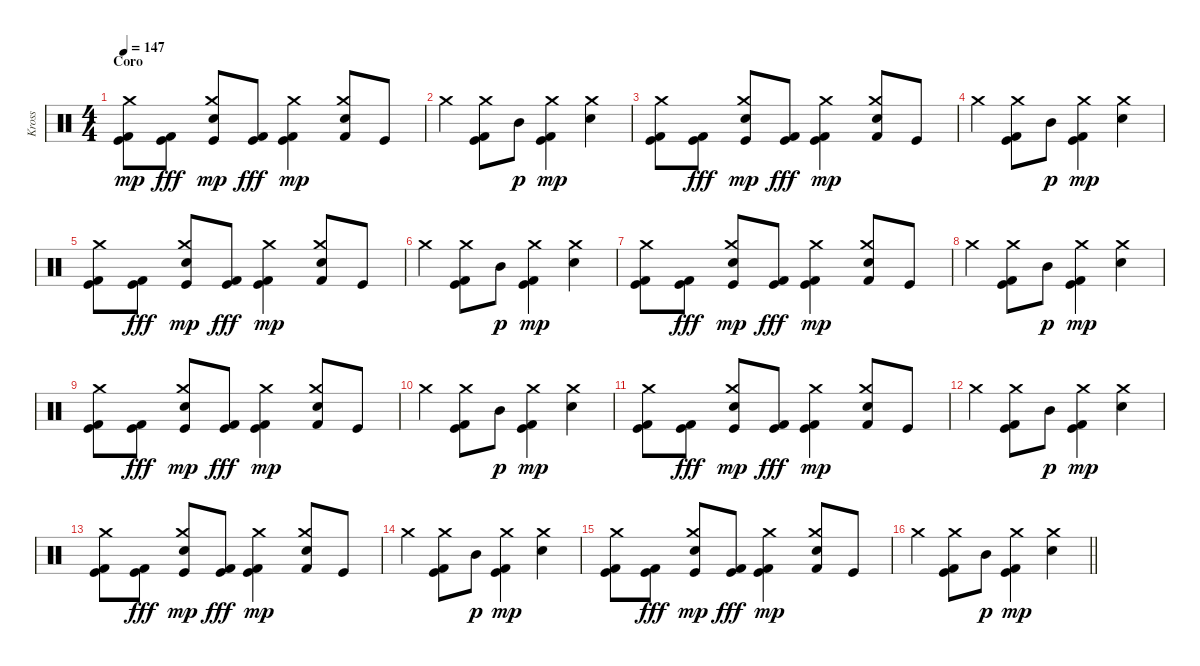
\track ("Kross" "Kross") {instrument percussion}
\staff {score}
\articulation defaults
\ts (4 4)
\section ("" "Coro")
\tempo 147
\clef neutral
\ks c
("Kick (hit) 2" "Kick (hit)" "Crash medium (hit)").8{dy mp} ("Kick (hit) 2" "Kick (hit)").8{dy fff} ("Snare (hit) 2" "Kick (hit)" "Crash medium (hit)").8{dy mp} ("Kick (hit) 2" "Kick (hit)").8{dy fff} ("Kick (hit) 2" "Kick (hit)" "Crash medium (hit)").4{dy mp} ("Snare (hit) 2" "Kick (hit) 2" "Crash medium (hit)").8 "Kick (hit)".8 |
"Crash medium (hit)".4 ("Kick (hit) 2" "Kick (hit)" "Crash medium (hit)").8 "Mid Tom (hit)".8{dy p} ("Kick (hit) 2" "Kick (hit)" "Crash medium (hit)").4{dy mp} ("Snare (hit) 2" "Crash medium (hit)").4 |
("Kick (hit) 2" "Kick (hit)" "Crash medium (hit)").8 ("Kick (hit) 2" "Kick (hit)").8{dy fff} ("Snare (hit) 2" "Kick (hit)" "Crash medium (hit)").8{dy mp} ("Kick (hit) 2" "Kick (hit)").8{dy fff} ("Kick (hit) 2" "Kick (hit)" "Crash medium (hit)").4{dy mp} ("Snare (hit) 2" "Kick (hit) 2" "Crash medium (hit)").8 "Kick (hit)".8 |
"Crash medium (hit)".4 ("Kick (hit) 2" "Kick (hit)" "Crash medium (hit)").8 "Mid Tom (hit)".8{dy p} ("Kick (hit) 2" "Kick (hit)" "Crash medium (hit)").4{dy mp} ("Snare (hit) 2" "Crash medium (hit)").4 |
("Kick (hit) 2" "Kick (hit)" "Crash medium (hit)").8 ("Kick (hit) 2" "Kick (hit)").8{dy fff} ("Snare (hit) 2" "Kick (hit)" "Crash medium (hit)").8{dy mp} ("Kick (hit) 2" "Kick (hit)").8{dy fff} ("Kick (hit) 2" "Kick (hit)" "Crash medium (hit)").4{dy mp} ("Snare (hit) 2" "Kick (hit) 2" "Crash medium (hit)").8 "Kick (hit)".8 |
"Crash medium (hit)".4 ("Kick (hit) 2" "Kick (hit)" "Crash medium (hit)").8 "Mid Tom (hit)".8{dy p} ("Kick (hit) 2" "Kick (hit)" "Crash medium (hit)").4{dy mp} ("Snare (hit) 2" "Crash medium (hit)").4 |
("Kick (hit) 2" "Kick (hit)" "Crash medium (hit)").8 ("Kick (hit) 2" "Kick (hit)").8{dy fff} ("Snare (hit) 2" "Kick (hit)" "Crash medium (hit)").8{dy mp} ("Kick (hit) 2" "Kick (hit)").8{dy fff} ("Kick (hit) 2" "Kick (hit)" "Crash medium (hit)").4{dy mp} ("Snare (hit) 2" "Kick (hit) 2" "Crash medium (hit)").8 "Kick (hit)".8 |
"Crash medium (hit)".4 ("Kick (hit) 2" "Kick (hit)" "Crash medium (hit)").8 "Mid Tom (hit)".8{dy p} ("Kick (hit) 2" "Kick (hit)" "Crash medium (hit)").4{dy mp} ("Snare (hit) 2" "Crash medium (hit)").4 |
("Kick (hit) 2" "Kick (hit)" "Crash medium (hit)").8 ("Kick (hit) 2" "Kick (hit)").8{dy fff} ("Snare (hit) 2" "Kick (hit)" "Crash medium (hit)").8{dy mp} ("Kick (hit) 2" "Kick (hit)").8{dy fff} ("Kick (hit) 2" "Kick (hit)" "Crash medium (hit)").4{dy mp} ("Snare (hit) 2" "Kick (hit) 2" "Crash medium (hit)").8 "Kick (hit)".8 |
"Crash medium (hit)".4 ("Kick (hit) 2" "Kick (hit)" "Crash medium (hit)").8 "Mid Tom (hit)".8{dy p} ("Kick (hit) 2" "Kick (hit)" "Crash medium (hit)").4{dy mp} ("Snare (hit) 2" "Crash medium (hit)").4 |
("Kick (hit) 2" "Kick (hit)" "Crash medium (hit)").8 ("Kick (hit) 2" "Kick (hit)").8{dy fff} ("Snare (hit) 2" "Kick (hit)" "Crash medium (hit)").8{dy mp} ("Kick (hit) 2" "Kick (hit)").8{dy fff} ("Kick (hit) 2" "Kick (hit)" "Crash medium (hit)").4{dy mp} ("Snare (hit) 2" "Kick (hit) 2" "Crash medium (hit)").8 "Kick (hit)".8 |
"Crash medium (hit)".4 ("Kick (hit) 2" "Kick (hit)" "Crash medium (hit)").8 "Mid Tom (hit)".8{dy p} ("Kick (hit) 2" "Kick (hit)" "Crash medium (hit)").4{dy mp} ("Snare (hit) 2" "Crash medium (hit)").4 |
("Kick (hit) 2" "Kick (hit)" "Crash medium (hit)").8 ("Kick (hit) 2" "Kick (hit)").8{dy fff} ("Snare (hit) 2" "Kick (hit)" "Crash medium (hit)").8{dy mp} ("Kick (hit) 2" "Kick (hit)").8{dy fff} ("Kick (hit) 2" "Kick (hit)" "Crash medium (hit)").4{dy mp} ("Snare (hit) 2" "Kick (hit) 2" "Crash medium (hit)").8 "Kick (hit)".8 |
"Crash medium (hit)".4 ("Kick (hit) 2" "Kick (hit)" "Crash medium (hit)").8 "Mid Tom (hit)".8{dy p} ("Kick (hit) 2" "Kick (hit)" "Crash medium (hit)").4{dy mp} ("Snare (hit) 2" "Crash medium (hit)").4 |
("Kick (hit) 2" "Kick (hit)" "Crash medium (hit)").8 ("Kick (hit) 2" "Kick (hit)").8{dy fff} ("Snare (hit) 2" "Kick (hit)" "Crash medium (hit)").8{dy mp} ("Kick (hit) 2" "Kick (hit)").8{dy fff} ("Kick (hit) 2" "Kick (hit)" "Crash medium (hit)").4{dy mp} ("Snare (hit) 2" "Kick (hit) 2" "Crash medium (hit)").8 "Kick (hit)".8 |
\barLineRight lightlight "Crash medium (hit)".4
("Kick (hit) 2" "Kick (hit)" "Crash medium (hit)").8 "Mid Tom (hit)".8{dy p} ("Kick (hit) 2" "Kick (hit)" "Crash medium (hit)").4{dy mp} ("Snare (hit) 2" "Crash medium (hit)").4
